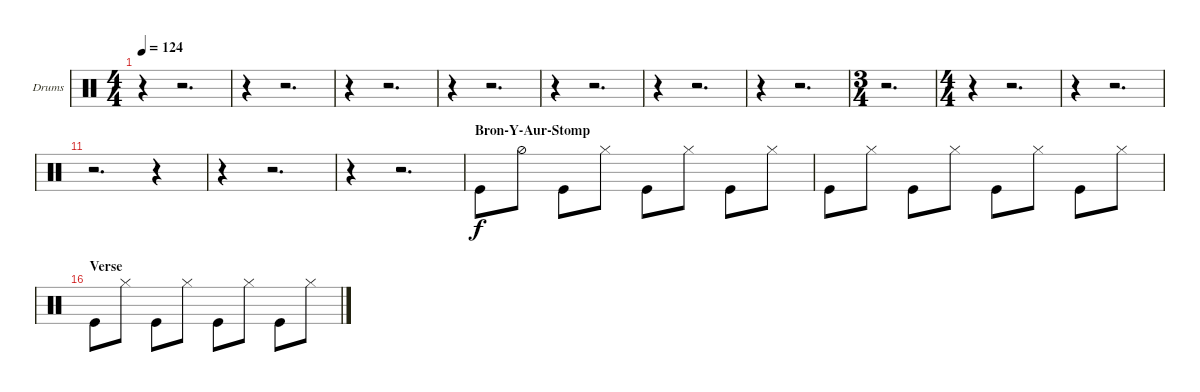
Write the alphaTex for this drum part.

\bracketExtendMode nobrackets
\firstSystemTrackNameOrientation horizontal
\otherSystemsTrackNameOrientation horizontal
\defaultBarNumberDisplay FirstOfSystem
\track ("Drumkit" "Drums") {instrument percussion}
\staff {score}
\articulation defaults
\ts (4 4)
\scale
0.33
\tempo 124
\accidentals auto
\clef neutral
\ottava regular
\simile none
\ks c
r.4{dy f} r.2{d} |
\scale
0.33 r.4 r.2{d} |
\scale
0.327543 r.4 r.2{d} |
\scale
0.336228 r.4 r.2{d} |
\scale
0.336228 r.4 r.2{d} |
\scale
0.351948 r.4 r.2{d} |
\scale
0.351948 r.4 r.2{d} |
\ts (3 4)
\scale
0.296104 r.2{d} |
\ts (4 4)
\scale
0.352941 r.4 r.2{d} |
\scale
0.323529 r.4 r.2{d} |
\scale
0.323529 r.2{d} r.4 |
\scale
0.333333 r.4 r.2{d} |
\scale
0.333333 r.4 r.2{d} |
\section ("" "Bron-Y-Aur-Stomp")
\scale
0.333333 "Kick (hit)".8 "Hi-Hat (half)".8 "Kick (hit)".8 "Hi-Hat (closed)".8 "Kick (hit)".8 "Hi-Hat (closed)".8 "Kick (hit)".8 "Hi-Hat (closed)".8 |
\scale
0.297297 "Kick (hit)".8 "Hi-Hat (closed)".8 "Kick (hit)".8 "Hi-Hat (closed)".8 "Kick (hit)".8 "Hi-Hat (closed)".8 "Kick (hit)".8 "Hi-Hat (closed)".8 |
\section ("" "Verse")
\scale
0.297297 "Kick (hit)".8 "Hi-Hat (closed)".8 "Kick (hit)".8 "Hi-Hat (closed)".8 "Kick (hit)".8 "Hi-Hat (closed)".8 "Kick (hit)".8 "Hi-Hat (closed)".8
